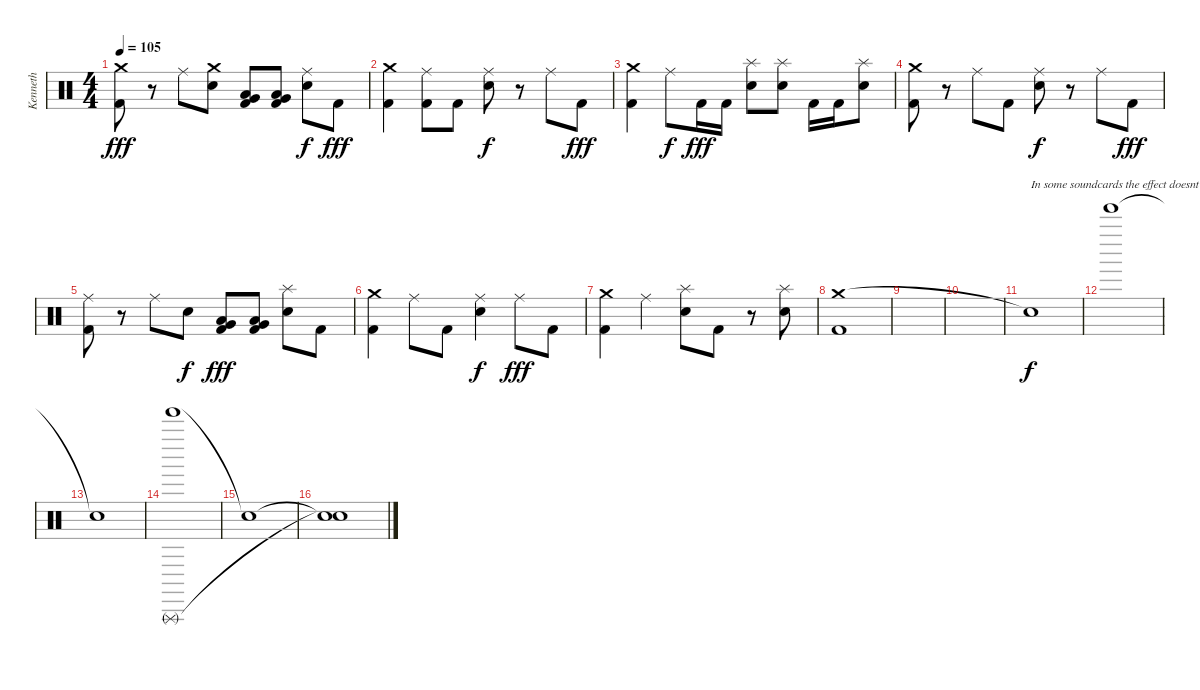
\track ("Kenneth" "Kenneth") {instrument percussion}
\staff {score}
\articulation defaults
\ts (4 4)
\tempo 105
\clef neutral
\ks c
("Crash medium (hit)" "Kick (hit) 2").8{dy fff} r.8 "Ride (middle)".8 ("Crash medium (hit)" "Electric Snare (hit)").8 ("Low Tom (hit)" "Very Low Tom (hit)" "Kick (hit) 2").8 ("Low Tom (hit)" "Very Low Tom (hit)" "Kick (hit) 2").8 ("Ride (middle)" "Electric Snare (hit)").8{dy f} "Kick (hit) 2".8{dy fff} |
("Crash medium (hit)" "Kick (hit) 2").4 ("Ride (middle)" "Kick (hit) 2").8 "Kick (hit) 2".8 ("Ride (middle)" "Electric Snare (hit)").8{dy f} r.8 "Ride (middle)".8 "Kick (hit) 2".8{dy fff} |
("Crash medium (hit)" "Kick (hit) 2").4 "Ride (middle)".8{dy f} "Kick (hit) 2".16{dy fff} "Kick (hit) 2".16 ("Splash (hit)" "Electric Snare (hit)").8 ("Splash (hit)" "Electric Snare (hit)").8 "Kick (hit) 2".16 "Kick (hit) 2".16 ("Splash (hit)" "Electric Snare (hit)").8 |
("Crash medium (hit)" "Kick (hit) 2").8 r.8 "Ride (middle)".8 "Kick (hit) 2".8 ("Ride (middle)" "Electric Snare (hit)").8{dy f} r.8 "Ride (middle)".8 "Kick (hit) 2".8{dy fff} |
("Ride (middle)" "Kick (hit) 2").8 r.8 "Ride (middle)".8 "Electric Snare (hit)".8{dy f} ("Low Tom (hit)" "Very Low Tom (hit)" "Kick (hit) 2").8{dy fff} ("Low Tom (hit)" "Very Low Tom (hit)" "Kick (hit) 2").8 ("Splash (hit)" "Electric Snare (hit)").8 "Kick (hit) 2".8 |
("Crash medium (hit)" "Kick (hit) 2").4 "Ride (middle)".8 "Kick (hit) 2".8 ("Ride (middle)" "Electric Snare (hit)").4{dy f} "Ride (middle)".8{dy fff} "Kick (hit) 2".8 |
("Crash medium (hit)" "Kick (hit) 2").4 "Ride (middle)".4 ("Splash (hit)" "Electric Snare (hit)").8 "Kick (hit) 2".8 r.8 ("Splash (hit)" "Electric Snare (hit)").8 |
("Crash medium (hit)" "Kick (hit) 2").1 |
|
|
"Snare (hit)"{t}.1{txt "In some soundcards the effect doesnt work" dy f} |
"Tinkle Bell (hit)".1 |
"Snare (hit)"{t}.1 |
("Tinkle Bell (hit)" "Triangle (rnute)").1 |
"Snare (hit)"{t}.1 |
("Snare (hit)"{t} "Snare (hit)"{t}).1
